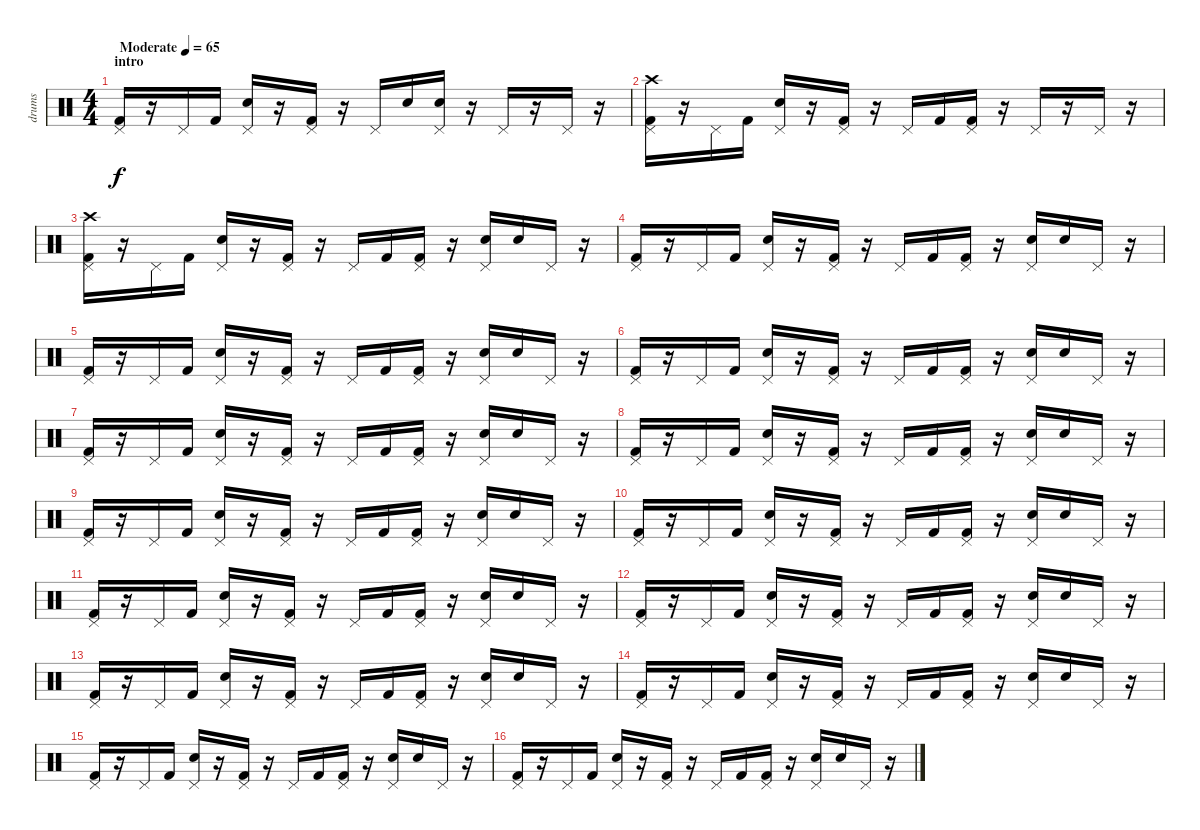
\track ("drums" "drums") {instrument percussion}
\staff {score}
\articulation defaults
\ts (4 4)
\section ("" "intro ")
\tempo (65 "Moderate")
\clef neutral
\ks c
("Kick (hit) 2" "Pedal Hi-Hat (hit)").16{dy f} r.16 "Pedal Hi-Hat (hit)".16 "Kick (hit) 2".16 ("Electric Snare (hit)" "Pedal Hi-Hat (hit)").16 r.16 ("Kick (hit) 2" "Pedal Hi-Hat (hit)").16 r.16 "Pedal Hi-Hat (hit)".16 "Electric Snare (hit)".16 ("Electric Snare (hit)" "Pedal Hi-Hat (hit)").16 r.16 "Pedal Hi-Hat (hit)".16 r.16 "Pedal Hi-Hat (hit)".16 r.16 |
("Kick (hit) 2" "Pedal Hi-Hat (hit)" "Crash high (hit)").16 r.16 "Pedal Hi-Hat (hit)".16 "Kick (hit) 2".16 ("Electric Snare (hit)" "Pedal Hi-Hat (hit)").16 r.16 ("Kick (hit) 2" "Pedal Hi-Hat (hit)").16 r.16 "Pedal Hi-Hat (hit)".16 "Kick (hit) 2".16 ("Kick (hit) 2" "Pedal Hi-Hat (hit)").16 r.16 "Pedal Hi-Hat (hit)".16 r.16 "Pedal Hi-Hat (hit)".16 r.16 |
("Kick (hit) 2" "Pedal Hi-Hat (hit)" "Crash high (hit)").16 r.16 "Pedal Hi-Hat (hit)".16 "Kick (hit) 2".16 ("Electric Snare (hit)" "Pedal Hi-Hat (hit)").16 r.16 ("Kick (hit) 2" "Pedal Hi-Hat (hit)").16 r.16 "Pedal Hi-Hat (hit)".16 "Kick (hit) 2".16 ("Kick (hit) 2" "Pedal Hi-Hat (hit)").16 r.16 ("Electric Snare (hit)" "Pedal Hi-Hat (hit)").16 "Electric Snare (hit)".16 "Pedal Hi-Hat (hit)".16 r.16 |
("Kick (hit) 2" "Pedal Hi-Hat (hit)").16 r.16 "Pedal Hi-Hat (hit)".16 "Kick (hit) 2".16 ("Electric Snare (hit)" "Pedal Hi-Hat (hit)").16 r.16 ("Kick (hit) 2" "Pedal Hi-Hat (hit)").16 r.16 "Pedal Hi-Hat (hit)".16 "Kick (hit) 2".16 ("Kick (hit) 2" "Pedal Hi-Hat (hit)").16 r.16 ("Electric Snare (hit)" "Pedal Hi-Hat (hit)").16 "Electric Snare (hit)".16 "Pedal Hi-Hat (hit)".16 r.16 |
("Kick (hit) 2" "Pedal Hi-Hat (hit)").16 r.16 "Pedal Hi-Hat (hit)".16 "Kick (hit) 2".16 ("Electric Snare (hit)" "Pedal Hi-Hat (hit)").16 r.16 ("Kick (hit) 2" "Pedal Hi-Hat (hit)").16 r.16 "Pedal Hi-Hat (hit)".16 "Kick (hit) 2".16 ("Kick (hit) 2" "Pedal Hi-Hat (hit)").16 r.16 ("Electric Snare (hit)" "Pedal Hi-Hat (hit)").16 "Electric Snare (hit)".16 "Pedal Hi-Hat (hit)".16 r.16 |
("Kick (hit) 2" "Pedal Hi-Hat (hit)").16 r.16 "Pedal Hi-Hat (hit)".16 "Kick (hit) 2".16 ("Electric Snare (hit)" "Pedal Hi-Hat (hit)").16 r.16 ("Kick (hit) 2" "Pedal Hi-Hat (hit)").16 r.16 "Pedal Hi-Hat (hit)".16 "Kick (hit) 2".16 ("Kick (hit) 2" "Pedal Hi-Hat (hit)").16 r.16 ("Electric Snare (hit)" "Pedal Hi-Hat (hit)").16 "Electric Snare (hit)".16 "Pedal Hi-Hat (hit)".16 r.16 |
("Kick (hit) 2" "Pedal Hi-Hat (hit)").16 r.16 "Pedal Hi-Hat (hit)".16 "Kick (hit) 2".16 ("Electric Snare (hit)" "Pedal Hi-Hat (hit)").16 r.16 ("Kick (hit) 2" "Pedal Hi-Hat (hit)").16 r.16 "Pedal Hi-Hat (hit)".16 "Kick (hit) 2".16 ("Kick (hit) 2" "Pedal Hi-Hat (hit)").16 r.16 ("Electric Snare (hit)" "Pedal Hi-Hat (hit)").16 "Electric Snare (hit)".16 "Pedal Hi-Hat (hit)".16 r.16 |
("Kick (hit) 2" "Pedal Hi-Hat (hit)").16 r.16 "Pedal Hi-Hat (hit)".16 "Kick (hit) 2".16 ("Electric Snare (hit)" "Pedal Hi-Hat (hit)").16 r.16 ("Kick (hit) 2" "Pedal Hi-Hat (hit)").16 r.16 "Pedal Hi-Hat (hit)".16 "Kick (hit) 2".16 ("Kick (hit) 2" "Pedal Hi-Hat (hit)").16 r.16 ("Electric Snare (hit)" "Pedal Hi-Hat (hit)").16 "Electric Snare (hit)".16 "Pedal Hi-Hat (hit)".16 r.16 |
("Kick (hit) 2" "Pedal Hi-Hat (hit)").16 r.16 "Pedal Hi-Hat (hit)".16 "Kick (hit) 2".16 ("Electric Snare (hit)" "Pedal Hi-Hat (hit)").16 r.16 ("Kick (hit) 2" "Pedal Hi-Hat (hit)").16 r.16 "Pedal Hi-Hat (hit)".16 "Kick (hit) 2".16 ("Kick (hit) 2" "Pedal Hi-Hat (hit)").16 r.16 ("Electric Snare (hit)" "Pedal Hi-Hat (hit)").16 "Electric Snare (hit)".16 "Pedal Hi-Hat (hit)".16 r.16 |
("Kick (hit) 2" "Pedal Hi-Hat (hit)").16 r.16 "Pedal Hi-Hat (hit)".16 "Kick (hit) 2".16 ("Electric Snare (hit)" "Pedal Hi-Hat (hit)").16 r.16 ("Kick (hit) 2" "Pedal Hi-Hat (hit)").16 r.16 "Pedal Hi-Hat (hit)".16 "Kick (hit) 2".16 ("Kick (hit) 2" "Pedal Hi-Hat (hit)").16 r.16 ("Electric Snare (hit)" "Pedal Hi-Hat (hit)").16 "Electric Snare (hit)".16 "Pedal Hi-Hat (hit)".16 r.16 |
("Kick (hit) 2" "Pedal Hi-Hat (hit)").16 r.16 "Pedal Hi-Hat (hit)".16 "Kick (hit) 2".16 ("Electric Snare (hit)" "Pedal Hi-Hat (hit)").16 r.16 ("Kick (hit) 2" "Pedal Hi-Hat (hit)").16 r.16 "Pedal Hi-Hat (hit)".16 "Kick (hit) 2".16 ("Kick (hit) 2" "Pedal Hi-Hat (hit)").16 r.16 ("Electric Snare (hit)" "Pedal Hi-Hat (hit)").16 "Electric Snare (hit)".16 "Pedal Hi-Hat (hit)".16 r.16 |
("Kick (hit) 2" "Pedal Hi-Hat (hit)").16 r.16 "Pedal Hi-Hat (hit)".16 "Kick (hit) 2".16 ("Electric Snare (hit)" "Pedal Hi-Hat (hit)").16 r.16 ("Kick (hit) 2" "Pedal Hi-Hat (hit)").16 r.16 "Pedal Hi-Hat (hit)".16 "Kick (hit) 2".16 ("Kick (hit) 2" "Pedal Hi-Hat (hit)").16 r.16 ("Electric Snare (hit)" "Pedal Hi-Hat (hit)").16 "Electric Snare (hit)".16 "Pedal Hi-Hat (hit)".16 r.16 |
("Kick (hit) 2" "Pedal Hi-Hat (hit)").16 r.16 "Pedal Hi-Hat (hit)".16 "Kick (hit) 2".16 ("Electric Snare (hit)" "Pedal Hi-Hat (hit)").16 r.16 ("Kick (hit) 2" "Pedal Hi-Hat (hit)").16 r.16 "Pedal Hi-Hat (hit)".16 "Kick (hit) 2".16 ("Kick (hit) 2" "Pedal Hi-Hat (hit)").16 r.16 ("Electric Snare (hit)" "Pedal Hi-Hat (hit)").16 "Electric Snare (hit)".16 "Pedal Hi-Hat (hit)".16 r.16 |
("Kick (hit) 2" "Pedal Hi-Hat (hit)").16 r.16 "Pedal Hi-Hat (hit)".16 "Kick (hit) 2".16 ("Electric Snare (hit)" "Pedal Hi-Hat (hit)").16 r.16 ("Kick (hit) 2" "Pedal Hi-Hat (hit)").16 r.16 "Pedal Hi-Hat (hit)".16 "Kick (hit) 2".16 ("Kick (hit) 2" "Pedal Hi-Hat (hit)").16 r.16 ("Electric Snare (hit)" "Pedal Hi-Hat (hit)").16 "Electric Snare (hit)".16 "Pedal Hi-Hat (hit)".16 r.16 |
("Kick (hit) 2" "Pedal Hi-Hat (hit)").16 r.16 "Pedal Hi-Hat (hit)".16 "Kick (hit) 2".16 ("Electric Snare (hit)" "Pedal Hi-Hat (hit)").16 r.16 ("Kick (hit) 2" "Pedal Hi-Hat (hit)").16 r.16 "Pedal Hi-Hat (hit)".16 "Kick (hit) 2".16 ("Kick (hit) 2" "Pedal Hi-Hat (hit)").16 r.16 ("Electric Snare (hit)" "Pedal Hi-Hat (hit)").16 "Electric Snare (hit)".16 "Pedal Hi-Hat (hit)".16 r.16 |
("Kick (hit) 2" "Pedal Hi-Hat (hit)").16 r.16 "Pedal Hi-Hat (hit)".16 "Kick (hit) 2".16 ("Electric Snare (hit)" "Pedal Hi-Hat (hit)").16 r.16 ("Kick (hit) 2" "Pedal Hi-Hat (hit)").16 r.16 "Pedal Hi-Hat (hit)".16 "Kick (hit) 2".16 ("Kick (hit) 2" "Pedal Hi-Hat (hit)").16 r.16 ("Electric Snare (hit)" "Pedal Hi-Hat (hit)").16 "Electric Snare (hit)".16 "Pedal Hi-Hat (hit)".16 r.16
